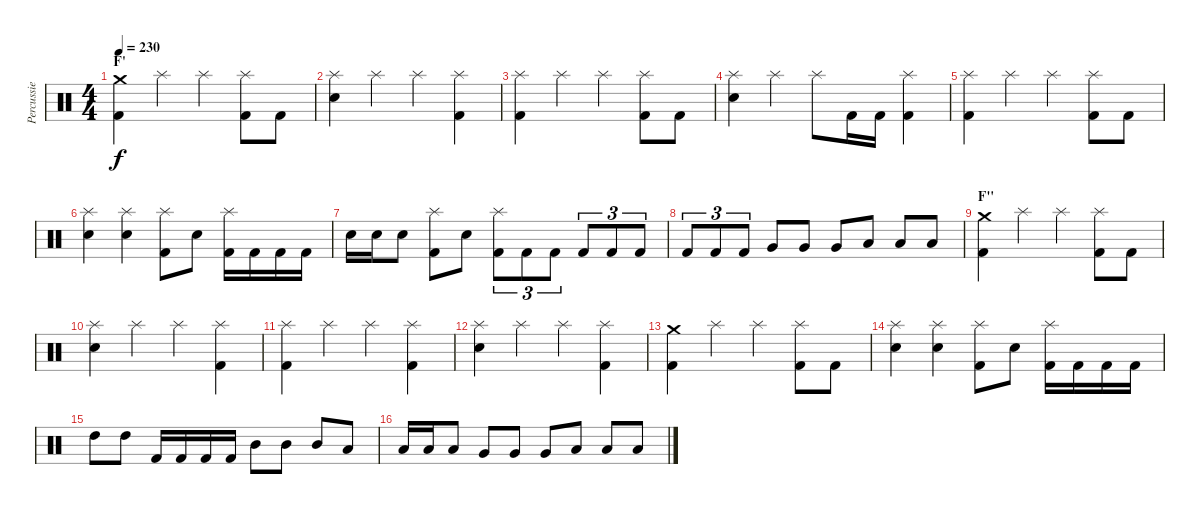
\track ("Percussie" "Percussie") {instrument percussion}
\staff {score}
\articulation defaults
\ts (4 4)
\section ("" "F'")
\tempo 230
\clef neutral
\ks c
("Crash medium (hit)" "Kick (hit) 2").4{dy f} "Splash (hit)".4 "Splash (hit)".4 ("Splash (hit)" "Kick (hit) 2").8 "Kick (hit) 2".8 |
("Splash (hit)" "Electric Snare (hit)").4 "Splash (hit)".4 "Splash (hit)".4 ("Splash (hit)" "Kick (hit) 2").4 |
("Splash (hit)" "Kick (hit) 2").4 "Splash (hit)".4 "Splash (hit)".4 ("Splash (hit)" "Kick (hit) 2").8 "Kick (hit) 2".8 |
("Splash (hit)" "Electric Snare (hit)").4 "Splash (hit)".4 "Splash (hit)".8 "Kick (hit) 2".16 "Kick (hit) 2".16 ("Splash (hit)" "Kick (hit) 2").4 |
("Splash (hit)" "Kick (hit) 2").4 "Splash (hit)".4 "Splash (hit)".4 ("Splash (hit)" "Kick (hit) 2").8 "Kick (hit) 2".8 |
("Splash (hit)" "Electric Snare (hit)").4 ("Splash (hit)" "Electric Snare (hit)").4 ("Splash (hit)" "Kick (hit) 2").8 "Electric Snare (hit)".8 ("Splash (hit)" "Kick (hit) 2").16 "Kick (hit) 2".16 "Kick (hit) 2".16 "Kick (hit) 2".16 |
"Electric Snare (hit)".16 "Electric Snare (hit)".16 "Electric Snare (hit)".8 ("Splash (hit)" "Kick (hit) 2").8 "Electric Snare (hit)".8 ("Splash (hit)" "Kick (hit) 2").8{tu (3 2)} "Kick (hit) 2".8{tu (3 2)} "Kick (hit) 2".8{tu (3 2)} "Kick (hit) 2".8{tu (3 2)} "Kick (hit) 2".8{tu (3 2)} "Kick (hit) 2".8{tu (3 2)} |
"Kick (hit) 2".8{tu (3 2)} "Kick (hit) 2".8{tu (3 2)} "Kick (hit) 2".8{tu (3 2)} "Very Low Tom (hit)".8 "Very Low Tom (hit)".8 "Very Low Tom (hit)".8 "Low Floor Tom (hit)".8 "Low Floor Tom (hit)".8 "Low Floor Tom (hit)".8 |
\section ("" "F''")
("Crash medium (hit)" "Kick (hit) 2").4 "Splash (hit)".4 "Splash (hit)".4 ("Splash (hit)" "Kick (hit) 2").8 "Kick (hit) 2".8 |
("Splash (hit)" "Electric Snare (hit)").4 "Splash (hit)".4 "Splash (hit)".4 ("Splash (hit)" "Kick (hit) 2").4 |
("Splash (hit)" "Kick (hit) 2").4 "Splash (hit)".4 "Splash (hit)".4 ("Splash (hit)" "Kick (hit) 2").4 |
("Splash (hit)" "Electric Snare (hit)").4 "Splash (hit)".4 "Splash (hit)".4 ("Splash (hit)" "Kick (hit) 2").4 |
("Crash medium (hit)" "Kick (hit) 2").4 "Splash (hit)".4 "Splash (hit)".4 ("Splash (hit)" "Kick (hit) 2").8 "Kick (hit) 2".8 |
("Splash (hit)" "Electric Snare (hit)").4 ("Splash (hit)" "Electric Snare (hit)").4 ("Splash (hit)" "Kick (hit) 2").8 "Electric Snare (hit)".8 ("Splash (hit)" "Kick (hit) 2").16 "Kick (hit) 2".16 "Kick (hit) 2".16 "Kick (hit) 2".16 |
"High Tom (hit)".8 "High Tom (hit)".8 "Kick (hit) 2".16 "Kick (hit) 2".16 "Kick (hit) 2".16 "Kick (hit) 2".16 "Mid Tom (hit)".8 "Mid Tom (hit)".8 "Mid Tom (hit)".8 "Low Tom (hit)".8 |
"Low Tom (hit)".16 "Low Tom (hit)".16 "Low Tom (hit)".8 "Very Low Tom (hit)".8 "Very Low Tom (hit)".8 "Very Low Tom (hit)".8 "Low Floor Tom (hit)".8 "Low Floor Tom (hit)".8 "Low Floor Tom (hit)".8
